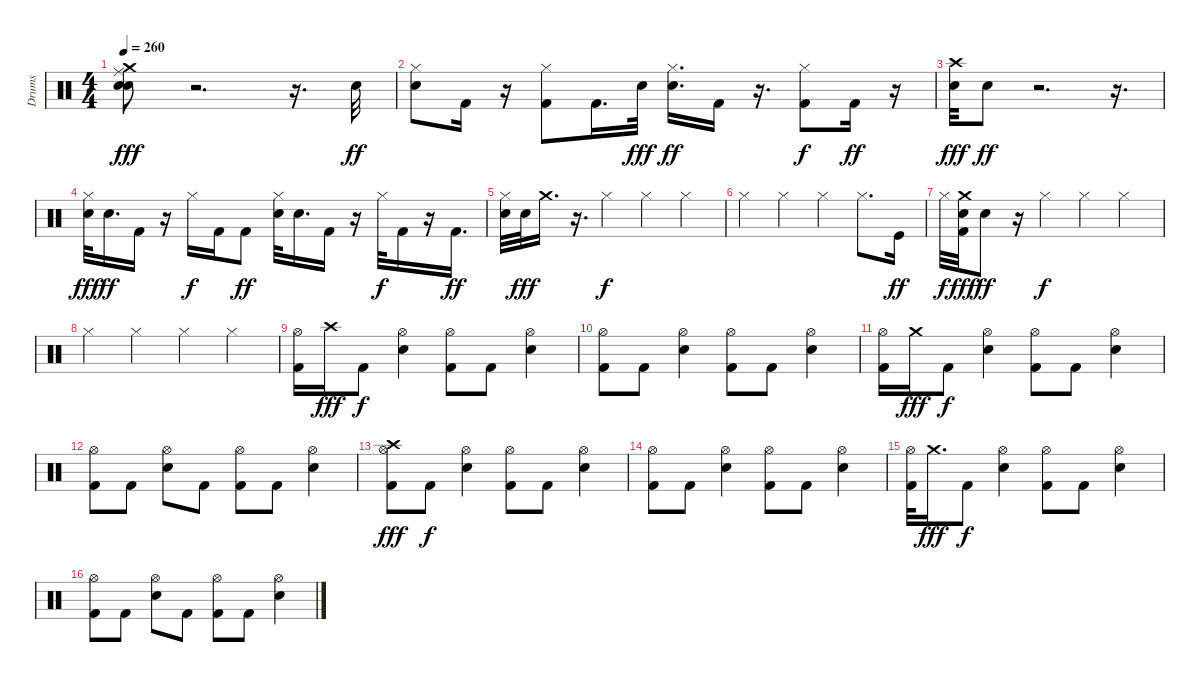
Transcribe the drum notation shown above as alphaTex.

\track ("Drums" "Drums") {instrument percussion}
\staff {score}
\articulation defaults
\ts (4 4)
\tempo 260
\clef neutral
\ks c
("Electric Snare (hit)" "Snare (hit) 2" "Ride (middle)" "Crash medium (hit)").8{dy fff} r.2{d} r.16{d} "Electric Snare (hit)".32{dy ff} |
("Hi-Hat (closed)" "Snare (hit) 2").8 "Kick (hit) 2".16 r.16 ("Hi-Hat (closed)" "Kick (hit) 2").8 "Kick (hit) 2".16{d} "Electric Snare (hit)".32{dy fff} ("Hi-Hat (closed)" "Snare (hit) 2").16{d dy ff} "Kick (hit) 2".16 r.16{d} ("Hi-Hat (closed)" "Kick (hit) 2").8{dy f} "Kick (hit) 2".16{dy ff} r.16 |
("Crash high (hit)" "Electric Snare (hit)").32{dy fff} "Snare (hit) 2".8{dy ff} r.2{d} r.16{d} |
("Hi-Hat (closed)" "Electric Snare (hit)").32{dy fff} "Snare (hit) 2".16{d dy ff} "Kick (hit) 2".16 r.16 "Hi-Hat (closed)".16{dy f} "Kick (hit) 2".16 "Kick (hit) 2".8{dy ff} ("Electric Snare (hit)" "Hi-Hat (closed)").32 "Snare (hit) 2".16{d} "Kick (hit) 2".16 r.16 "Hi-Hat (closed)".32{dy f} "Kick (hit) 2".16 r.16 "Kick (hit) 2".16{d dy ff} |
("Hi-Hat (closed)" "Electric Snare (hit)").32 "Snare (hit) 2".32{dy fff} "Crash medium (hit)".16{d} r.16{d} "Hi-Hat (closed)".4{dy f} "Hi-Hat (closed)".4 "Hi-Hat (closed)".4 |
"Hi-Hat (closed)".4 "Hi-Hat (closed)".4 "Hi-Hat (closed)".4 "Hi-Hat (closed)".8{d} "Kick (hit)".16{dy ff} |
"Hi-Hat (closed)".32{dy f} ("Kick (hit) 2" "Electric Snare (hit)" "Crash medium (hit)").32{dy fff} "Snare (hit) 2".8{dy ff} r.16 "Hi-Hat (closed)".4{dy f} "Hi-Hat (closed)".4 "Hi-Hat (closed)".4 |
"Hi-Hat (closed)".4 "Hi-Hat (closed)".4 "Hi-Hat (closed)".4 "Hi-Hat (closed)".4 |
("Hi-Hat (open)" "Kick (hit) 2").16 "Crash high (hit)".16{dy fff} "Kick (hit) 2".8{dy f} ("Hi-Hat (open)" "Snare (hit) 2").4 ("Hi-Hat (open)" "Kick (hit) 2").8 "Kick (hit) 2".8 ("Hi-Hat (open)" "Snare (hit) 2").4 |
("Hi-Hat (open)" "Kick (hit) 2").8 "Kick (hit) 2".8 ("Hi-Hat (open)" "Snare (hit) 2").4 ("Hi-Hat (open)" "Kick (hit) 2").8 "Kick (hit) 2".8 ("Hi-Hat (open)" "Snare (hit) 2").4 |
("Hi-Hat (open)" "Kick (hit) 2").16 "Crash medium (hit)".16{dy fff} "Kick (hit) 2".8{dy f} ("Hi-Hat (open)" "Snare (hit) 2").4 ("Hi-Hat (open)" "Kick (hit) 2").8 "Kick (hit) 2".8 ("Hi-Hat (open)" "Snare (hit) 2").4 |
("Hi-Hat (open)" "Kick (hit) 2").8 "Kick (hit) 2".8 ("Hi-Hat (open)" "Snare (hit) 2").8 "Kick (hit) 2".8 ("Hi-Hat (open)" "Kick (hit) 2").8 "Kick (hit) 2".8 ("Hi-Hat (open)" "Snare (hit) 2").4 |
("Hi-Hat (open)" "Kick (hit) 2" "Crash high (hit)").8{dy fff} "Kick (hit) 2".8{dy f} ("Hi-Hat (open)" "Snare (hit) 2").4 ("Hi-Hat (open)" "Kick (hit) 2").8 "Kick (hit) 2".8 ("Hi-Hat (open)" "Snare (hit) 2").4 |
("Hi-Hat (open)" "Kick (hit) 2").8 "Kick (hit) 2".8 ("Hi-Hat (open)" "Snare (hit) 2").4 ("Hi-Hat (open)" "Kick (hit) 2").8 "Kick (hit) 2".8 ("Hi-Hat (open)" "Snare (hit) 2").4 |
("Hi-Hat (open)" "Kick (hit) 2").32 "Crash medium (hit)".16{d dy fff} "Kick (hit) 2".8{dy f} ("Hi-Hat (open)" "Snare (hit) 2").4 ("Hi-Hat (open)" "Kick (hit) 2").8 "Kick (hit) 2".8 ("Hi-Hat (open)" "Snare (hit) 2").4 |
("Hi-Hat (open)" "Kick (hit) 2").8 "Kick (hit) 2".8 ("Hi-Hat (open)" "Snare (hit) 2").8 "Kick (hit) 2".8 ("Hi-Hat (open)" "Kick (hit) 2").8 "Kick (hit) 2".8 ("Hi-Hat (open)" "Snare (hit) 2").4
